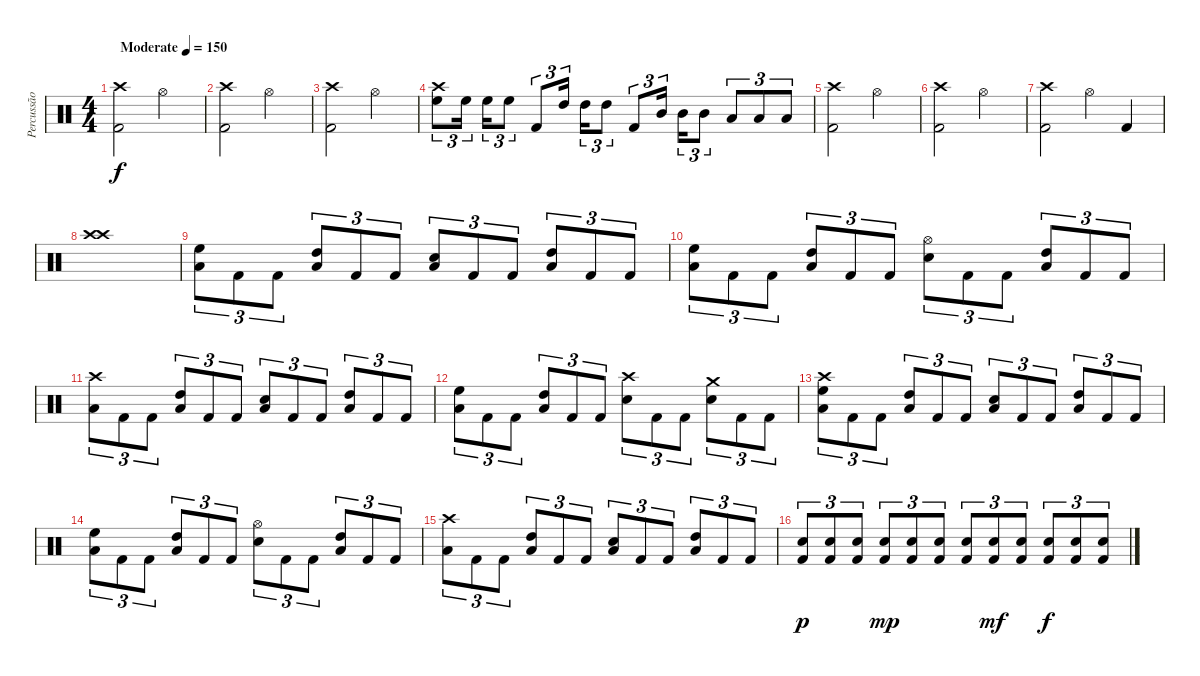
\track ("Percussão" "Percussão") {instrument percussion}
\staff {score}
\articulation defaults
\ts (4 4)
\tempo (150 "Moderate")
\clef neutral
\ks c
("Crash high (hit)" "Kick (hit) 2").2{dy f} "Hi-Hat (open)".2 |
("Crash high (hit)" "Kick (hit) 2").2 "Hi-Hat (open)".2 |
("Crash high (hit)" "Kick (hit) 2").2 "Hi-Hat (open)".2 |
("Crash high (hit)" "High Floor Tom (hit)").8{tu (3 2)} "High Floor Tom (hit)".16{tu (3 2) beam splitsecondary} "High Floor Tom (hit)".16{tu (3 2)} "High Floor Tom (hit)".8{tu (3 2)} "Kick (hit) 2".8{tu (3 2)} "High Tom (hit)".16{tu (3 2) beam splitsecondary} "High Tom (hit)".16{tu (3 2)} "High Tom (hit)".8{tu (3 2)} "Kick (hit) 2".8{tu (3 2)} "Mid Tom (hit)".16{tu (3 2) beam splitsecondary} "Mid Tom (hit)".16{tu (3 2)} "Mid Tom (hit)".8{tu (3 2)} "Low Tom (hit)".8{tu (3 2)} "Low Tom (hit)".8{tu (3 2)} "Low Tom (hit)".8{tu (3 2)} |
("Crash high (hit)" "Kick (hit) 2").2 "Hi-Hat (open)".2 |
("Crash high (hit)" "Kick (hit) 2").2 "Hi-Hat (open)".2 |
("Crash high (hit)" "Kick (hit) 2").2 "Hi-Hat (open)".4 "Kick (hit) 2".4 |
("Crash high (hit)" "Crash high (hit)").1 |
("Low Floor Tom (hit)" "High Floor Tom (hit)").8{tu (3 2)} "Kick (hit) 2".8{tu (3 2)} "Kick (hit) 2".8{tu (3 2)} ("Low Floor Tom (hit)" "High Tom (hit)").8{tu (3 2)} "Kick (hit) 2".8{tu (3 2)} "Kick (hit) 2".8{tu (3 2)} ("Snare (hit) 2" "Low Floor Tom (hit)").8{tu (3 2)} "Kick (hit) 2".8{tu (3 2)} "Kick (hit) 2".8{tu (3 2)} ("Low Floor Tom (hit)" "High Tom (hit)").8{tu (3 2)} "Kick (hit) 2".8{tu (3 2)} "Kick (hit) 2".8{tu (3 2)} |
("Low Floor Tom (hit)" "High Floor Tom (hit)").8{tu (3 2)} "Kick (hit) 2".8{tu (3 2)} "Kick (hit) 2".8{tu (3 2)} ("Low Floor Tom (hit)" "High Tom (hit)").8{tu (3 2)} "Kick (hit) 2".8{tu (3 2)} "Kick (hit) 2".8{tu (3 2)} ("Hi-Hat (open)" "Snare (hit) 2").8{tu (3 2)} "Kick (hit) 2".8{tu (3 2)} "Kick (hit) 2".8{tu (3 2)} ("Low Floor Tom (hit)" "High Tom (hit)").8{tu (3 2)} "Kick (hit) 2".8{tu (3 2)} "Kick (hit) 2".8{tu (3 2)} |
("Crash high (hit)" "Low Floor Tom (hit)").8{tu (3 2)} "Kick (hit) 2".8{tu (3 2)} "Kick (hit) 2".8{tu (3 2)} ("Low Floor Tom (hit)" "High Tom (hit)").8{tu (3 2)} "Kick (hit) 2".8{tu (3 2)} "Kick (hit) 2".8{tu (3 2)} ("Snare (hit) 2" "Low Floor Tom (hit)").8{tu (3 2)} "Kick (hit) 2".8{tu (3 2)} "Kick (hit) 2".8{tu (3 2)} ("Low Floor Tom (hit)" "High Tom (hit)").8{tu (3 2)} "Kick (hit) 2".8{tu (3 2)} "Kick (hit) 2".8{tu (3 2)} |
("Low Floor Tom (hit)" "High Floor Tom (hit)").8{tu (3 2)} "Kick (hit) 2".8{tu (3 2)} "Kick (hit) 2".8{tu (3 2)} ("Low Floor Tom (hit)" "High Tom (hit)").8{tu (3 2)} "Kick (hit) 2".8{tu (3 2)} "Kick (hit) 2".8{tu (3 2)} ("Crash high (hit)" "Snare (hit) 2").8{tu (3 2)} "Kick (hit) 2".8{tu (3 2)} "Kick (hit) 2".8{tu (3 2)} ("Crash medium (hit)" "Snare (hit) 2").8{tu (3 2)} "Kick (hit) 2".8{tu (3 2)} "Kick (hit) 2".8{tu (3 2)} |
("Crash high (hit)" "Low Floor Tom (hit)" "High Floor Tom (hit)").8{tu (3 2)} "Kick (hit) 2".8{tu (3 2)} "Kick (hit) 2".8{tu (3 2)} ("Low Floor Tom (hit)" "High Tom (hit)").8{tu (3 2)} "Kick (hit) 2".8{tu (3 2)} "Kick (hit) 2".8{tu (3 2)} ("Snare (hit) 2" "Low Floor Tom (hit)").8{tu (3 2)} "Kick (hit) 2".8{tu (3 2)} "Kick (hit) 2".8{tu (3 2)} ("Low Floor Tom (hit)" "High Tom (hit)").8{tu (3 2)} "Kick (hit) 2".8{tu (3 2)} "Kick (hit) 2".8{tu (3 2)} |
("Low Floor Tom (hit)" "High Floor Tom (hit)").8{tu (3 2)} "Kick (hit) 2".8{tu (3 2)} "Kick (hit) 2".8{tu (3 2)} ("Low Floor Tom (hit)" "High Tom (hit)").8{tu (3 2)} "Kick (hit) 2".8{tu (3 2)} "Kick (hit) 2".8{tu (3 2)} ("Hi-Hat (open)" "Snare (hit) 2").8{tu (3 2)} "Kick (hit) 2".8{tu (3 2)} "Kick (hit) 2".8{tu (3 2)} ("Low Floor Tom (hit)" "High Tom (hit)").8{tu (3 2)} "Kick (hit) 2".8{tu (3 2)} "Kick (hit) 2".8{tu (3 2)} |
("Crash high (hit)" "Low Floor Tom (hit)").8{tu (3 2)} "Kick (hit) 2".8{tu (3 2)} "Kick (hit) 2".8{tu (3 2)} ("Low Floor Tom (hit)" "High Tom (hit)").8{tu (3 2)} "Kick (hit) 2".8{tu (3 2)} "Kick (hit) 2".8{tu (3 2)} ("Snare (hit) 2" "Low Floor Tom (hit)").8{tu (3 2)} "Kick (hit) 2".8{tu (3 2)} "Kick (hit) 2".8{tu (3 2)} ("Low Floor Tom (hit)" "High Tom (hit)").8{tu (3 2)} "Kick (hit) 2".8{tu (3 2)} "Kick (hit) 2".8{tu (3 2)} |
("Kick (hit) 2" "Snare (hit) 2").8{tu (3 2) dy p} ("Kick (hit) 2" "Snare (hit) 2").8{tu (3 2)} ("Kick (hit) 2" "Snare (hit) 2").8{tu (3 2)} ("Kick (hit) 2" "Snare (hit) 2").8{tu (3 2) dy mp} ("Kick (hit) 2" "Snare (hit) 2").8{tu (3 2)} ("Kick (hit) 2" "Snare (hit) 2").8{tu (3 2)} ("Kick (hit) 2" "Snare (hit) 2").8{tu (3 2)} ("Kick (hit) 2" "Snare (hit) 2").8{tu (3 2) dy mf} ("Kick (hit) 2" "Snare (hit) 2").8{tu (3 2)} ("Kick (hit) 2" "Snare (hit) 2").8{tu (3 2) dy f} ("Kick (hit) 2" "Snare (hit) 2").8{tu (3 2)} ("Kick (hit) 2" "Snare (hit) 2").8{tu (3 2)}
